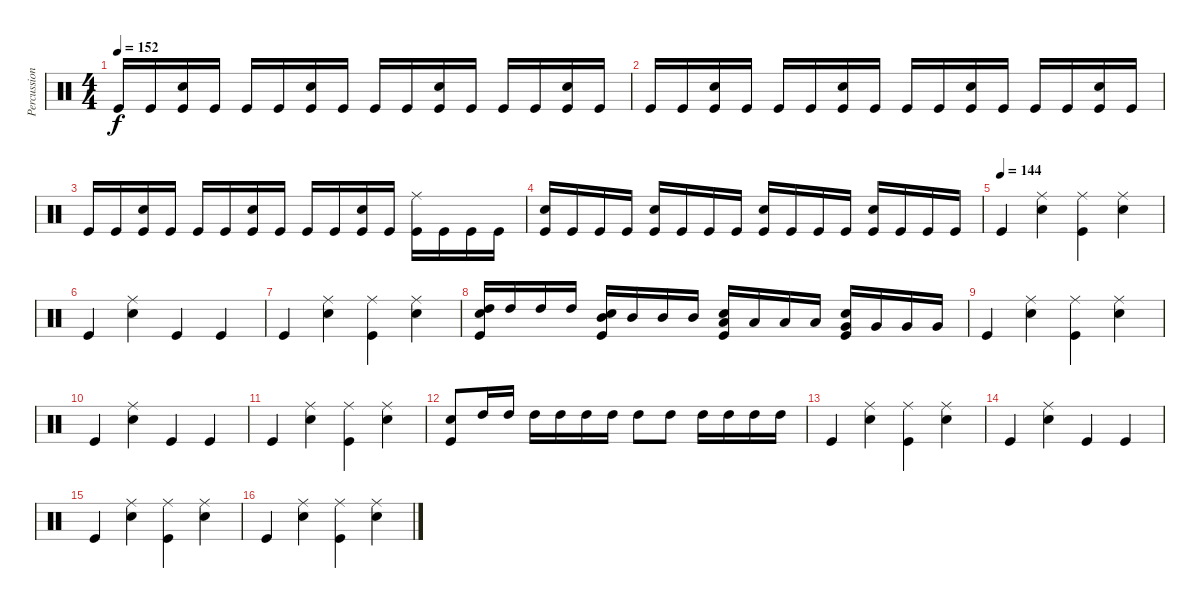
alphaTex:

\track ("Percussion" "Percussion") {instrument percussion}
\staff {score}
\articulation defaults
\ts (4 4)
\tempo 152
\clef neutral
\ks c "Kick (hit)".16{dy f} "Kick (hit)".16
("Snare (hit) 2" "Kick (hit)").16 "Kick (hit)".16 "Kick (hit)".16 "Kick (hit)".16 ("Snare (hit) 2" "Kick (hit)").16 "Kick (hit)".16 "Kick (hit)".16 "Kick (hit)".16 ("Snare (hit) 2" "Kick (hit)").16 "Kick (hit)".16 "Kick (hit)".16 "Kick (hit)".16 ("Snare (hit) 2" "Kick (hit)").16 "Kick (hit)".16 |
"Kick (hit)".16 "Kick (hit)".16 ("Snare (hit) 2" "Kick (hit)").16 "Kick (hit)".16 "Kick (hit)".16 "Kick (hit)".16 ("Snare (hit) 2" "Kick (hit)").16 "Kick (hit)".16 "Kick (hit)".16 "Kick (hit)".16 ("Snare (hit) 2" "Kick (hit)").16 "Kick (hit)".16 "Kick (hit)".16 "Kick (hit)".16 ("Snare (hit) 2" "Kick (hit)").16 "Kick (hit)".16 |
"Kick (hit)".16 "Kick (hit)".16 ("Snare (hit) 2" "Kick (hit)").16 "Kick (hit)".16 "Kick (hit)".16 "Kick (hit)".16 ("Snare (hit) 2" "Kick (hit)").16 "Kick (hit)".16 "Kick (hit)".16 "Kick (hit)".16 ("Snare (hit) 2" "Kick (hit)").16 "Kick (hit)".16 ("Ride (middle)" "Kick (hit)").16 "Kick (hit)".16 "Kick (hit)".16 "Kick (hit)".16 |
("Snare (hit) 2" "Kick (hit)").16 "Kick (hit)".16 "Kick (hit)".16 "Kick (hit)".16 ("Snare (hit) 2" "Kick (hit)").16 "Kick (hit)".16 "Kick (hit)".16 "Kick (hit)".16 ("Snare (hit) 2" "Kick (hit)").16 "Kick (hit)".16 "Kick (hit)".16 "Kick (hit)".16 ("Snare (hit) 2" "Kick (hit)").16 "Kick (hit)".16 "Kick (hit)".16 "Kick (hit)".16 |
\tempo (144)
"Kick (hit)".4 ("Ride (middle)" "Snare (hit) 2").4 ("Ride (middle)" "Kick (hit)").4 ("Ride (middle)" "Snare (hit) 2").4 |
"Kick (hit)".4 ("Ride (middle)" "Snare (hit) 2").4 "Kick (hit)".4 "Kick (hit)".4 |
"Kick (hit)".4 ("Ride (middle)" "Snare (hit) 2").4 ("Ride (middle)" "Kick (hit)").4 ("Ride (middle)" "Snare (hit) 2").4 |
("Snare (hit) 2" "High Tom (hit)" "Kick (hit)").16 "High Tom (hit)".16 "High Tom (hit)".16 "High Tom (hit)".16 ("Snare (hit) 2" "Mid Tom (hit)" "Kick (hit)").16 "Mid Tom (hit)".16 "Mid Tom (hit)".16 "Mid Tom (hit)".16 ("Snare (hit) 2" "Low Tom (hit)" "Kick (hit)").16 "Low Tom (hit)".16 "Low Tom (hit)".16 "Low Tom (hit)".16 ("Snare (hit) 2" "Very Low Tom (hit)" "Kick (hit)").16 "Very Low Tom (hit)".16 "Very Low Tom (hit)".16 "Very Low Tom (hit)".16 |
"Kick (hit)".4 ("Ride (middle)" "Snare (hit) 2").4 ("Ride (middle)" "Kick (hit)").4 ("Ride (middle)" "Snare (hit) 2").4 |
"Kick (hit)".4 ("Ride (middle)" "Snare (hit) 2").4 "Kick (hit)".4 "Kick (hit)".4 |
"Kick (hit)".4 ("Ride (middle)" "Snare (hit) 2").4 ("Ride (middle)" "Kick (hit)").4 ("Ride (middle)" "Snare (hit) 2").4 |
("Snare (hit) 2" "Kick (hit)").8 "High Tom (hit)".16 "High Tom (hit)".16 "High Tom (hit)".16 "High Tom (hit)".16 "High Tom (hit)".16 "High Tom (hit)".16 "High Tom (hit)".8 "High Tom (hit)".8 "High Tom (hit)".16 "High Tom (hit)".16 "High Tom (hit)".16 "High Tom (hit)".16 |
"Kick (hit)".4 ("Ride (middle)" "Snare (hit) 2").4 ("Ride (middle)" "Kick (hit)").4 ("Ride (middle)" "Snare (hit) 2").4 |
"Kick (hit)".4 ("Ride (middle)" "Snare (hit) 2").4 "Kick (hit)".4 "Kick (hit)".4 |
"Kick (hit)".4 ("Ride (middle)" "Snare (hit) 2").4 ("Ride (middle)" "Kick (hit)").4 ("Ride (middle)" "Snare (hit) 2").4 |
"Kick (hit)".4 ("Ride (middle)" "Snare (hit) 2").4 ("Ride (middle)" "Kick (hit)").4 ("Ride (middle)" "Snare (hit) 2").4
